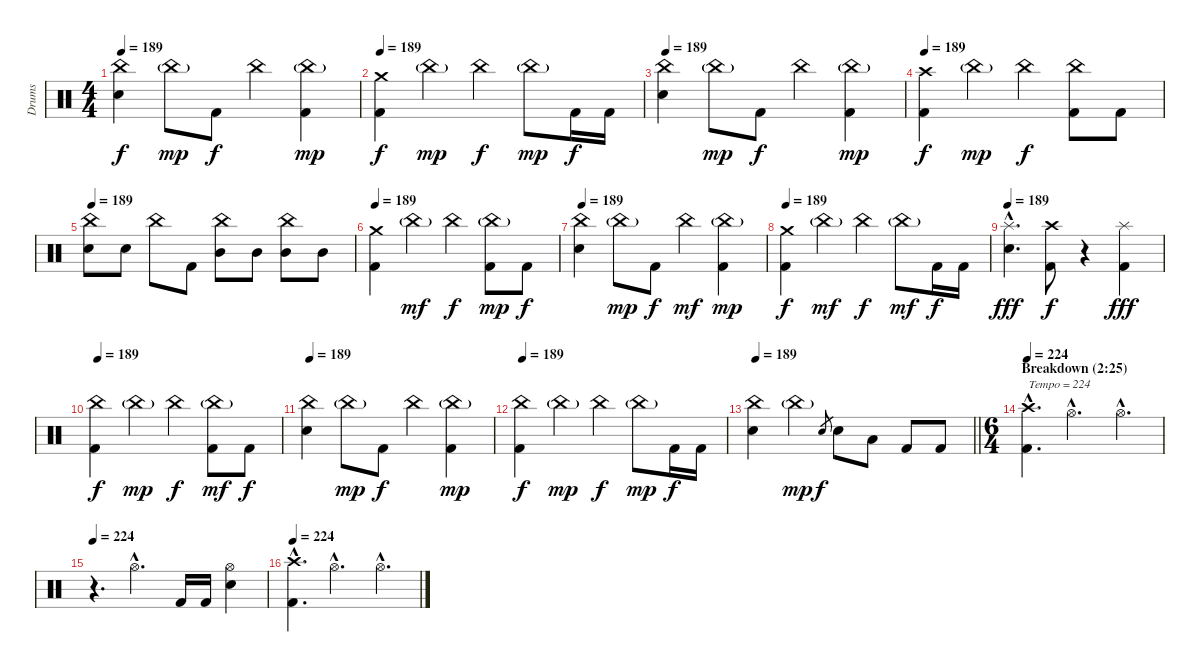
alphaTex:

\track ("Drums" "Drums") {instrument percussion}
\staff {score}
\articulation defaults
\ts (4 4)
\tempo 189
\clef neutral
\ks c
("China (hit)" "Snare (hit) 2").4{dy f} "China (hit)"{g}.8{dy mp} "Kick (hit) 2".8{dy f} "China (hit)".4 ("China (hit)"{g} "Kick (hit) 2").4{dy mp} |
\tempo 189
("Crash medium (hit)" "Kick (hit) 2").4{dy f} "China (hit)"{g}.4{dy mp} "China (hit)".4{dy f} "China (hit)"{g}.8{dy mp} "Kick (hit) 2".16{dy f} "Kick (hit) 2".16 |
\tempo 189
("China (hit)" "Snare (hit) 2").4 "China (hit)"{g}.8{dy mp} "Kick (hit) 2".8{dy f} "China (hit)".4 ("China (hit)"{g} "Kick (hit) 2").4{dy mp} |
\tempo 189
("Crash high (hit)" "Kick (hit) 2").4{dy f} "China (hit)"{g}.4{dy mp} "China (hit)".4{dy f} ("China (hit)" "Kick (hit) 2").8 "Kick (hit) 2".8 |
\tempo 189
("China (hit)" "Snare (hit) 2").8 "Snare (hit) 2".8 "China (hit)".8 "Kick (hit) 2".8 ("China (hit)" "Mid Tom (hit)").8 "Mid Tom (hit)".8 ("China (hit)" "Mid Tom (hit)").8 "Mid Tom (hit)".8 |
\tempo 189
("Crash medium (hit)" "Kick (hit) 2").4 "China (hit)"{g}.4{dy mf} "China (hit)".4{dy f} ("China (hit)"{g} "Kick (hit) 2").8{dy mp} "Kick (hit) 2".8{dy f} |
\tempo 189
("China (hit)" "Snare (hit) 2").4 "China (hit)"{g}.8{dy mp} "Kick (hit) 2".8{dy f} "China (hit)".4{dy mf} ("China (hit)"{g} "Kick (hit) 2").4{dy mp} |
\tempo 189
("Crash medium (hit)" "Kick (hit) 2").4{dy f} "China (hit)"{g}.4{dy mf} "China (hit)".4{dy f} "China (hit)"{g}.8{dy mf} "Kick (hit) 2".16{dy f} "Kick (hit) 2".16 |
\tempo 189
("Splash (hit)"{hac} "Snare (hit) 2"{hac}).4{d dy fff} ("Crash high (hit)" "Kick (hit) 2").8{dy f} r.4 ("Splash (hit)" "Kick (hit) 2").4{dy fff} |
\tempo 189
("China (hit)" "Kick (hit) 2").4{dy f} "China (hit)"{g}.4{dy mp} "China (hit)".4{dy f} ("China (hit)"{g} "Kick (hit) 2").8{dy mf} "Kick (hit) 2".8{dy f} |
\tempo 189
("China (hit)" "Snare (hit) 2").4 "China (hit)"{g}.8{dy mp} "Kick (hit) 2".8{dy f} "China (hit)".4 ("China (hit)"{g} "Kick (hit) 2").4{dy mp} |
\tempo 189
("China (hit)" "Kick (hit) 2").4{dy f} "China (hit)"{g}.4{dy mp} "China (hit)".4{dy f} "China (hit)"{g}.8{dy mp} "Kick (hit) 2".16{dy f} "Kick (hit) 2".16 |
\tempo 189
\barLineRight lightlight
("China (hit)" "Snare (hit) 2").4 "China (hit)"{g}.4{dy mp} "Snare (hit) 2".8{gr dy f} "Snare (hit) 2".8 "Low Tom (hit)".8 "Kick (hit) 2".8 "Kick (hit) 2".8 |
\ts (6 4)
\section ("" "Breakdown (2:25)")
\tempo 224
("Crash high (hit)"{hac} "Kick (hit) 2"{hac}).4{d txt "Tempo = 224"} "Hi-Hat (open)"{hac}.2{d} "Hi-Hat (open)"{hac}.4{d} |
\tempo 224
r.4{d} "Hi-Hat (open)"{hac}.2{d} "Kick (hit) 2".16 "Kick (hit) 2".16 ("Hi-Hat (open)" "Snare (hit) 2").4 |
\tempo 224
("Crash high (hit)"{hac} "Kick (hit) 2"{hac}).4{d} "Hi-Hat (open)"{hac}.2{d} "Hi-Hat (open)"{hac}.4{d}
